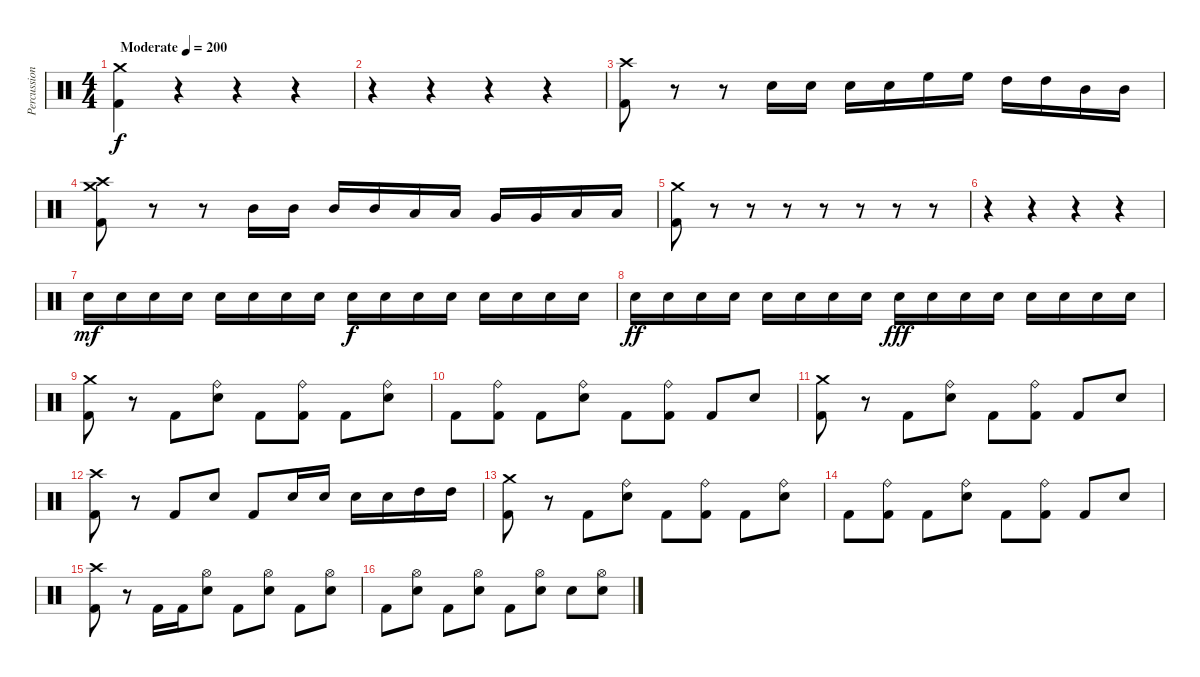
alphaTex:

\track ("Percussion" "Percussion") {instrument percussion}
\staff {score}
\articulation defaults
\ts (4 4)
\tempo (200 "Moderate")
\clef neutral
\ks c
("Crash medium (hit)" "Kick (hit) 2").4{dy f} r.4 r.4 r.4 |
r.4 r.4 r.4 r.4 |
("Crash high (hit)" "Kick (hit) 2").8 r.8 r.8 "Snare (hit) 2".16 "Snare (hit) 2".16 "Snare (hit) 2".16 "Snare (hit) 2".16 "High Floor Tom (hit)".16 "High Floor Tom (hit)".16 "High Tom (hit)".16 "High Tom (hit)".16 "Mid Tom (hit)".16 "Mid Tom (hit)".16 |
("Crash high (hit)" "Crash medium (hit)" "Kick (hit) 2").8 r.8 r.8 "Mid Tom (hit)".16 "Mid Tom (hit)".16 "Mid Tom (hit)".16 "Mid Tom (hit)".16 "Low Tom (hit)".16 "Low Tom (hit)".16 "Very Low Tom (hit)".16 "Very Low Tom (hit)".16 "Low Floor Tom (hit)".16 "Low Floor Tom (hit)".16 |
("Crash medium (hit)" "Kick (hit) 2").8 r.8 r.8 r.8 r.8 r.8 r.8 r.8 |
r.4 r.4 r.4 r.4 |
"Snare (hit) 2".16{dy mf} "Snare (hit) 2".16 "Snare (hit) 2".16 "Snare (hit) 2".16 "Snare (hit) 2".16 "Snare (hit) 2".16 "Snare (hit) 2".16 "Snare (hit) 2".16 "Snare (hit) 2".16{dy f} "Snare (hit) 2".16 "Snare (hit) 2".16 "Snare (hit) 2".16 "Snare (hit) 2".16 "Snare (hit) 2".16 "Snare (hit) 2".16 "Snare (hit) 2".16 |
"Snare (hit) 2".16{dy ff} "Snare (hit) 2".16 "Snare (hit) 2".16 "Snare (hit) 2".16 "Snare (hit) 2".16 "Snare (hit) 2".16 "Snare (hit) 2".16 "Snare (hit) 2".16 "Snare (hit) 2".16{dy fff} "Snare (hit) 2".16 "Snare (hit) 2".16 "Snare (hit) 2".16 "Snare (hit) 2".16 "Snare (hit) 2".16 "Snare (hit) 2".16 "Snare (hit) 2".16 |
("Crash medium (hit)" "Kick (hit) 2").8 r.8 "Kick (hit) 2".8 ("Ride (bell)" "Snare (hit) 2").8 "Kick (hit) 2".8 ("Ride (bell)" "Kick (hit) 2").8 "Kick (hit) 2".8 ("Ride (bell)" "Snare (hit) 2").8 |
"Kick (hit) 2".8 ("Ride (bell)" "Kick (hit) 2").8 "Kick (hit) 2".8 ("Ride (bell)" "Snare (hit) 2").8 "Kick (hit) 2".8 ("Ride (bell)" "Kick (hit) 2").8 "Kick (hit) 2".8 "Snare (hit) 2".8 |
("Crash medium (hit)" "Kick (hit) 2").8 r.8 "Kick (hit) 2".8 ("Ride (bell)" "Snare (hit) 2").8 "Kick (hit) 2".8 ("Ride (bell)" "Kick (hit) 2").8 "Kick (hit) 2".8 "Snare (hit) 2".8 |
("Crash high (hit)" "Kick (hit) 2").8 r.8 "Kick (hit) 2".8 "Snare (hit) 2".8 "Kick (hit) 2".8 "Snare (hit) 2".16 "Snare (hit) 2".16 "Snare (hit) 2".16 "Snare (hit) 2".16 "High Tom (hit)".16 "High Tom (hit)".16 |
("Crash medium (hit)" "Kick (hit) 2").8 r.8 "Kick (hit) 2".8 ("Ride (bell)" "Snare (hit) 2").8 "Kick (hit) 2".8 ("Ride (bell)" "Kick (hit) 2").8 "Kick (hit) 2".8 ("Ride (bell)" "Snare (hit) 2").8 |
"Kick (hit) 2".8 ("Ride (bell)" "Kick (hit) 2").8 "Kick (hit) 2".8 ("Ride (bell)" "Snare (hit) 2").8 "Kick (hit) 2".8 ("Ride (bell)" "Kick (hit) 2").8 "Kick (hit) 2".8 "Snare (hit) 2".8 |
("Crash high (hit)" "Kick (hit) 2").8 r.8 "Kick (hit) 2".16 "Kick (hit) 2".16 ("Hi-Hat (open)" "Snare (hit) 2").8 "Kick (hit) 2".8 ("Hi-Hat (open)" "Snare (hit) 2").8 "Kick (hit) 2".8 ("Hi-Hat (open)" "Snare (hit) 2").8 |
"Kick (hit) 2".8 ("Hi-Hat (open)" "Snare (hit) 2").8 "Kick (hit) 2".8 ("Hi-Hat (open)" "Snare (hit) 2").8 "Kick (hit) 2".8 ("Hi-Hat (open)" "Snare (hit) 2").8 "Snare (hit) 2".8 ("Hi-Hat (open)" "Snare (hit) 2").8
